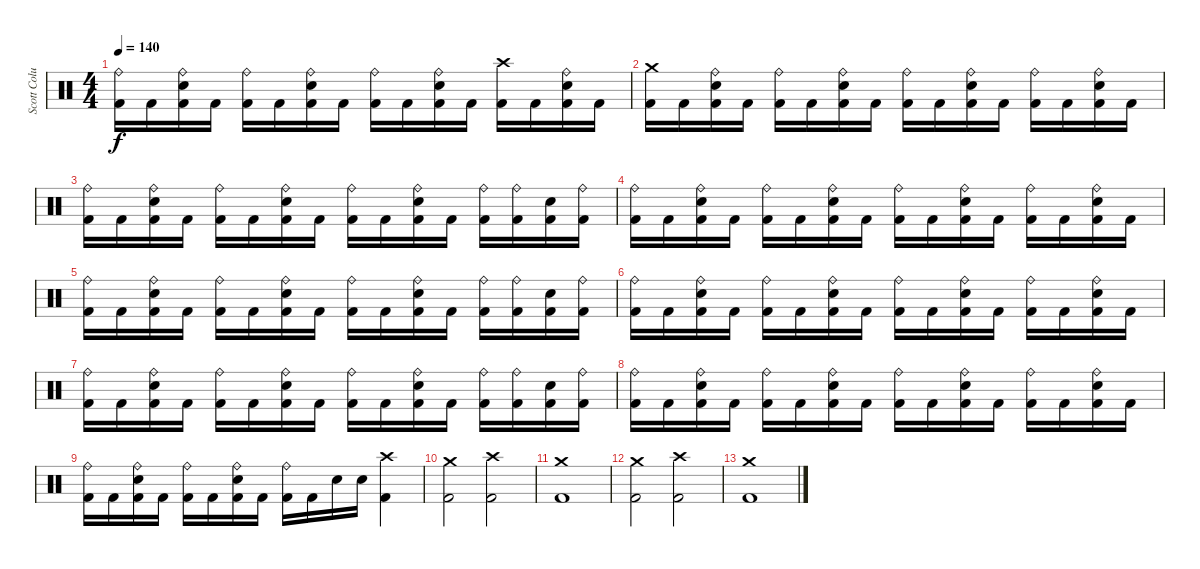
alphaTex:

\track ("Scott Columbus(Drums)" "Scott Colu") {instrument percussion}
\staff {score}
\articulation defaults
\ts (4 4)
\tempo 140
\clef neutral
\ks c
("Ride (bell)" "Kick (hit) 2").16{dy f} "Kick (hit) 2".16 ("Ride (bell)" "Snare (hit) 2" "Kick (hit) 2").16 "Kick (hit) 2".16 ("Ride (bell)" "Kick (hit) 2").16 "Kick (hit) 2".16 ("Ride (bell)" "Snare (hit) 2" "Kick (hit) 2").16 "Kick (hit) 2".16 ("Ride (bell)" "Kick (hit) 2").16 "Kick (hit) 2".16 ("Ride (bell)" "Snare (hit) 2" "Kick (hit) 2").16 "Kick (hit) 2".16 ("Crash high (hit)" "Kick (hit) 2").16 "Kick (hit) 2".16 ("Ride (bell)" "Snare (hit) 2" "Kick (hit) 2").16 "Kick (hit) 2".16 |
("Crash medium (hit)" "Kick (hit) 2").16 "Kick (hit) 2".16 ("Ride (bell)" "Snare (hit) 2" "Kick (hit) 2").16 "Kick (hit) 2".16 ("Ride (bell)" "Kick (hit) 2").16 "Kick (hit) 2".16 ("Ride (bell)" "Snare (hit) 2" "Kick (hit) 2").16 "Kick (hit) 2".16 ("Ride (bell)" "Kick (hit) 2").16 "Kick (hit) 2".16 ("Ride (bell)" "Snare (hit) 2" "Kick (hit) 2").16 "Kick (hit) 2".16 ("Ride (bell)" "Kick (hit) 2").16 "Kick (hit) 2".16 ("Ride (bell)" "Snare (hit) 2" "Kick (hit) 2").16 "Kick (hit) 2".16 |
("Ride (bell)" "Kick (hit) 2").16 "Kick (hit) 2".16 ("Ride (bell)" "Snare (hit) 2" "Kick (hit) 2").16 "Kick (hit) 2".16 ("Ride (bell)" "Kick (hit) 2").16 "Kick (hit) 2".16 ("Ride (bell)" "Snare (hit) 2" "Kick (hit) 2").16 "Kick (hit) 2".16 ("Ride (bell)" "Kick (hit) 2").16 "Kick (hit) 2".16 ("Ride (bell)" "Snare (hit) 2" "Kick (hit) 2").16 "Kick (hit) 2".16 ("Ride (bell)" "Kick (hit) 2").16 ("Ride (bell)" "Kick (hit) 2").16 ("Snare (hit) 2" "Kick (hit) 2").16 ("Ride (bell)" "Kick (hit) 2").16 |
("Ride (bell)" "Kick (hit) 2").16 "Kick (hit) 2".16 ("Ride (bell)" "Snare (hit) 2" "Kick (hit) 2").16 "Kick (hit) 2".16 ("Ride (bell)" "Kick (hit) 2").16 "Kick (hit) 2".16 ("Ride (bell)" "Snare (hit) 2" "Kick (hit) 2").16 "Kick (hit) 2".16 ("Ride (bell)" "Kick (hit) 2").16 "Kick (hit) 2".16 ("Ride (bell)" "Snare (hit) 2" "Kick (hit) 2").16 "Kick (hit) 2".16 ("Ride (bell)" "Kick (hit) 2").16 "Kick (hit) 2".16 ("Ride (bell)" "Snare (hit) 2" "Kick (hit) 2").16 "Kick (hit) 2".16 |
("Ride (bell)" "Kick (hit) 2").16 "Kick (hit) 2".16 ("Ride (bell)" "Snare (hit) 2" "Kick (hit) 2").16 "Kick (hit) 2".16 ("Ride (bell)" "Kick (hit) 2").16 "Kick (hit) 2".16 ("Ride (bell)" "Snare (hit) 2" "Kick (hit) 2").16 "Kick (hit) 2".16 ("Ride (bell)" "Kick (hit) 2").16 "Kick (hit) 2".16 ("Ride (bell)" "Snare (hit) 2" "Kick (hit) 2").16 "Kick (hit) 2".16 ("Ride (bell)" "Kick (hit) 2").16 ("Ride (bell)" "Kick (hit) 2").16 ("Snare (hit) 2" "Kick (hit) 2").16 ("Ride (bell)" "Kick (hit) 2").16 |
("Ride (bell)" "Kick (hit) 2").16 "Kick (hit) 2".16 ("Ride (bell)" "Snare (hit) 2" "Kick (hit) 2").16 "Kick (hit) 2".16 ("Ride (bell)" "Kick (hit) 2").16 "Kick (hit) 2".16 ("Ride (bell)" "Snare (hit) 2" "Kick (hit) 2").16 "Kick (hit) 2".16 ("Ride (bell)" "Kick (hit) 2").16 "Kick (hit) 2".16 ("Ride (bell)" "Snare (hit) 2" "Kick (hit) 2").16 "Kick (hit) 2".16 ("Ride (bell)" "Kick (hit) 2").16 "Kick (hit) 2".16 ("Ride (bell)" "Snare (hit) 2" "Kick (hit) 2").16 "Kick (hit) 2".16 |
("Ride (bell)" "Kick (hit) 2").16 "Kick (hit) 2".16 ("Ride (bell)" "Snare (hit) 2" "Kick (hit) 2").16 "Kick (hit) 2".16 ("Ride (bell)" "Kick (hit) 2").16 "Kick (hit) 2".16 ("Ride (bell)" "Snare (hit) 2" "Kick (hit) 2").16 "Kick (hit) 2".16 ("Ride (bell)" "Kick (hit) 2").16 "Kick (hit) 2".16 ("Ride (bell)" "Snare (hit) 2" "Kick (hit) 2").16 "Kick (hit) 2".16 ("Ride (bell)" "Kick (hit) 2").16 ("Ride (bell)" "Kick (hit) 2").16 ("Snare (hit) 2" "Kick (hit) 2").16 ("Ride (bell)" "Kick (hit) 2").16 |
("Ride (bell)" "Kick (hit) 2").16 "Kick (hit) 2".16 ("Ride (bell)" "Snare (hit) 2" "Kick (hit) 2").16 "Kick (hit) 2".16 ("Ride (bell)" "Kick (hit) 2").16 "Kick (hit) 2".16 ("Ride (bell)" "Snare (hit) 2" "Kick (hit) 2").16 "Kick (hit) 2".16 ("Ride (bell)" "Kick (hit) 2").16 "Kick (hit) 2".16 ("Ride (bell)" "Snare (hit) 2" "Kick (hit) 2").16 "Kick (hit) 2".16 ("Ride (bell)" "Kick (hit) 2").16 "Kick (hit) 2".16 ("Ride (bell)" "Snare (hit) 2" "Kick (hit) 2").16 "Kick (hit) 2".16 |
("Ride (bell)" "Kick (hit) 2").16 "Kick (hit) 2".16 ("Ride (bell)" "Snare (hit) 2" "Kick (hit) 2").16 "Kick (hit) 2".16 ("Ride (bell)" "Kick (hit) 2").16 "Kick (hit) 2".16 ("Ride (bell)" "Snare (hit) 2" "Kick (hit) 2").16 "Kick (hit) 2".16 ("Ride (bell)" "Kick (hit) 2").16 "Kick (hit) 2".16 "Snare (hit) 2".16 "Snare (hit) 2".16 ("Crash high (hit)" "Kick (hit) 2").4 |
("Crash medium (hit)" "Kick (hit) 2").2 ("Crash high (hit)" "Kick (hit) 2").2 |
("Crash medium (hit)" "Kick (hit) 2").1 |
("Crash medium (hit)" "Kick (hit) 2").2 ("Crash high (hit)" "Kick (hit) 2").2 |
("Crash medium (hit)" "Kick (hit) 2").1
